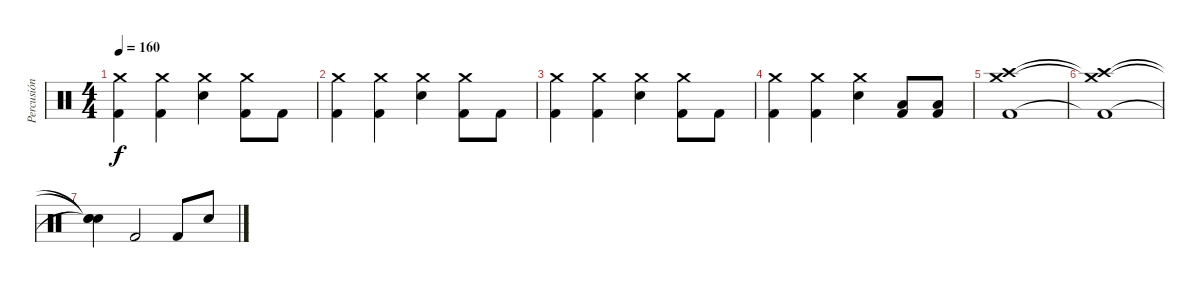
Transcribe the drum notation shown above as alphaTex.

\track ("Percusión" "Percusión") {instrument percussion}
\staff {score}
\articulation defaults
\ts (4 4)
\tempo 160
\clef neutral
\ks c
("Crash medium (hit)" "Kick (hit) 2").4{dy f} ("Crash medium (hit)" "Kick (hit) 2").4 ("Crash medium (hit)" "Snare (hit) 2").4 ("Crash medium (hit)" "Kick (hit) 2").8 "Kick (hit) 2".8 |
("Crash medium (hit)" "Kick (hit) 2").4 ("Crash medium (hit)" "Kick (hit) 2").4 ("Crash medium (hit)" "Snare (hit) 2").4 ("Crash medium (hit)" "Kick (hit) 2").8 "Kick (hit) 2".8 |
("Crash medium (hit)" "Kick (hit) 2").4 ("Crash medium (hit)" "Kick (hit) 2").4 ("Crash medium (hit)" "Snare (hit) 2").4 ("Crash medium (hit)" "Kick (hit) 2").8 "Kick (hit) 2".8 |
("Crash medium (hit)" "Kick (hit) 2").4 ("Crash medium (hit)" "Kick (hit) 2").4 ("Crash medium (hit)" "Snare (hit) 2").4 ("Low Floor Tom (hit)" "Kick (hit) 2").8 ("Low Floor Tom (hit)" "Kick (hit) 2").8 |
("Crash medium (hit)" "Crash high (hit)" "Kick (hit) 2").1 |
("Crash medium (hit)"{t} "Crash high (hit)"{t} "Kick (hit) 2"{t}).1 |
("Snare (hit)"{t} "Snare (hit)"{t} "Snare (hit)"{t}).4 "Kick (hit) 2".2 "Kick (hit) 2".8 "Metronome (bell)".8
